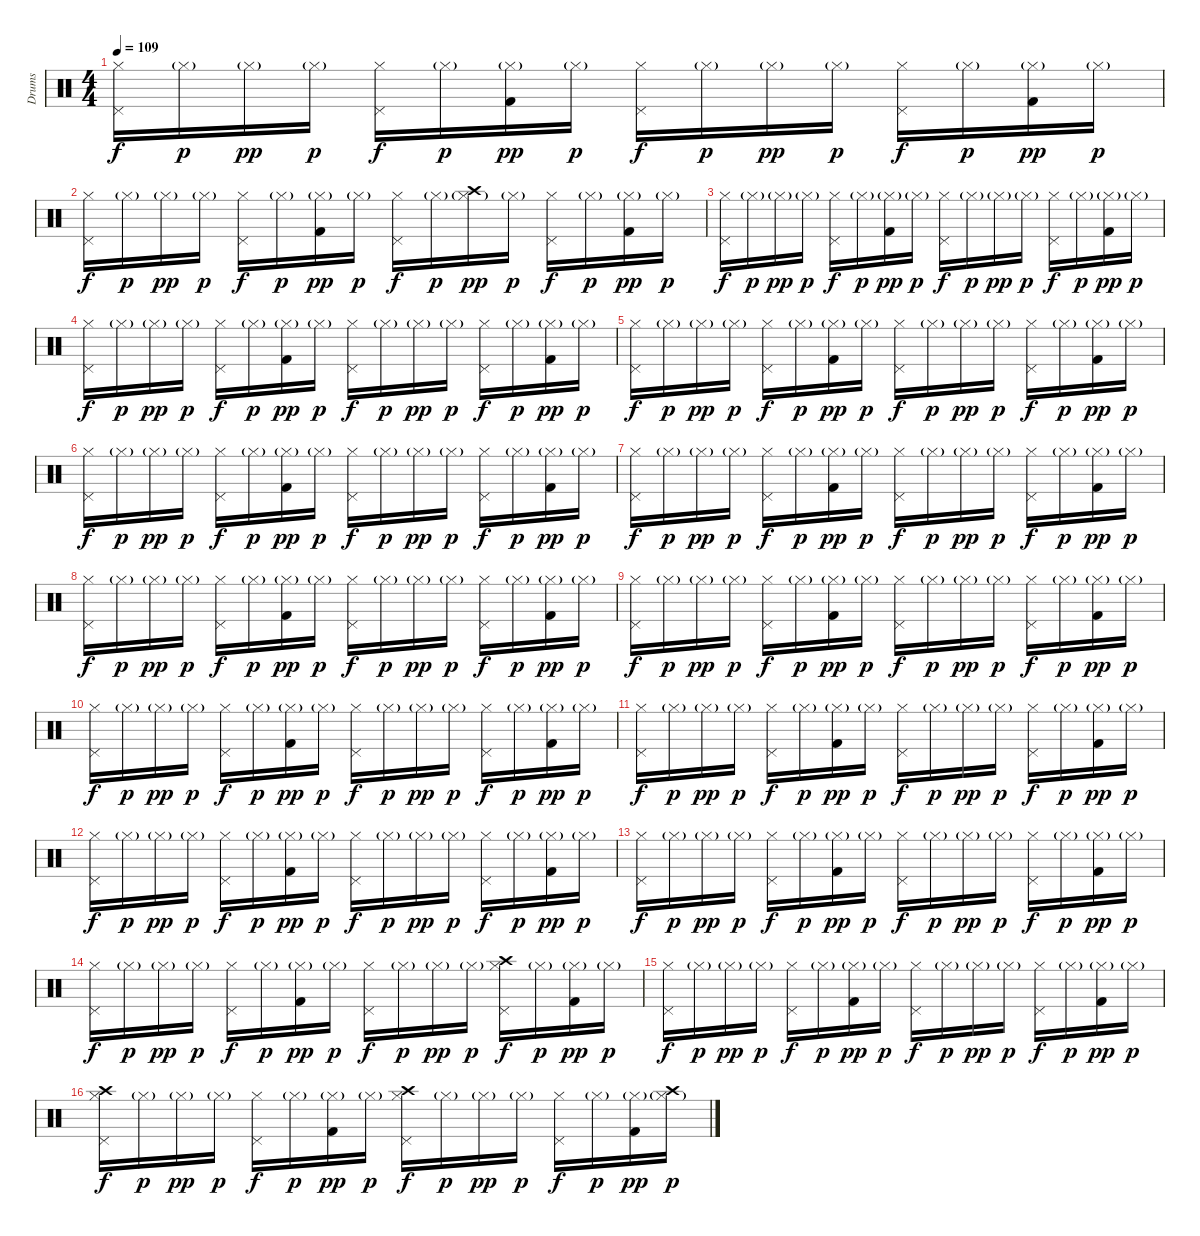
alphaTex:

\track ("Drums" "Drums") {instrument percussion}
\staff {score}
\articulation defaults
\ts (4 4)
\tempo 109
\clef neutral
\ks c
("Hi-Hat (closed)" "Pedal Hi-Hat (hit)").16{dy f} "Hi-Hat (closed)"{g}.16{dy p} "Hi-Hat (closed)"{g}.16{dy pp} "Hi-Hat (closed)"{g}.16{dy p} ("Hi-Hat (closed)" "Pedal Hi-Hat (hit)").16{dy f} "Hi-Hat (closed)"{g}.16{dy p} ("Hi-Hat (closed)"{g} "Kick (hit) 2").16{dy pp} "Hi-Hat (closed)"{g}.16{dy p} ("Hi-Hat (closed)" "Pedal Hi-Hat (hit)").16{dy f} "Hi-Hat (closed)"{g}.16{dy p} "Hi-Hat (closed)"{g}.16{dy pp} "Hi-Hat (closed)"{g}.16{dy p} ("Hi-Hat (closed)" "Pedal Hi-Hat (hit)").16{dy f} "Hi-Hat (closed)"{g}.16{dy p} ("Hi-Hat (closed)"{g} "Kick (hit) 2").16{dy pp} "Hi-Hat (closed)"{g}.16{dy p} |
("Hi-Hat (closed)" "Pedal Hi-Hat (hit)").16{dy f} "Hi-Hat (closed)"{g}.16{dy p} "Hi-Hat (closed)"{g}.16{dy pp} "Hi-Hat (closed)"{g}.16{dy p} ("Hi-Hat (closed)" "Pedal Hi-Hat (hit)").16{dy f} "Hi-Hat (closed)"{g}.16{dy p} ("Hi-Hat (closed)"{g} "Kick (hit) 2").16{dy pp} "Hi-Hat (closed)"{g}.16{dy p} ("Hi-Hat (closed)" "Pedal Hi-Hat (hit)").16{dy f} "Hi-Hat (closed)"{g}.16{dy p} ("Hi-Hat (closed)"{g} "Crash high (hit)").16{dy pp} "Hi-Hat (closed)"{g}.16{dy p} ("Hi-Hat (closed)" "Pedal Hi-Hat (hit)").16{dy f} "Hi-Hat (closed)"{g}.16{dy p} ("Hi-Hat (closed)"{g} "Kick (hit) 2").16{dy pp} "Hi-Hat (closed)"{g}.16{dy p} |
("Hi-Hat (closed)" "Pedal Hi-Hat (hit)").16{dy f} "Hi-Hat (closed)"{g}.16{dy p} "Hi-Hat (closed)"{g}.16{dy pp} "Hi-Hat (closed)"{g}.16{dy p} ("Hi-Hat (closed)" "Pedal Hi-Hat (hit)").16{dy f} "Hi-Hat (closed)"{g}.16{dy p} ("Hi-Hat (closed)"{g} "Kick (hit) 2").16{dy pp} "Hi-Hat (closed)"{g}.16{dy p} ("Hi-Hat (closed)" "Pedal Hi-Hat (hit)").16{dy f} "Hi-Hat (closed)"{g}.16{dy p} "Hi-Hat (closed)"{g}.16{dy pp} "Hi-Hat (closed)"{g}.16{dy p} ("Hi-Hat (closed)" "Pedal Hi-Hat (hit)").16{dy f} "Hi-Hat (closed)"{g}.16{dy p} ("Hi-Hat (closed)"{g} "Kick (hit) 2").16{dy pp} "Hi-Hat (closed)"{g}.16{dy p} |
("Hi-Hat (closed)" "Pedal Hi-Hat (hit)").16{dy f} "Hi-Hat (closed)"{g}.16{dy p} "Hi-Hat (closed)"{g}.16{dy pp} "Hi-Hat (closed)"{g}.16{dy p} ("Hi-Hat (closed)" "Pedal Hi-Hat (hit)").16{dy f} "Hi-Hat (closed)"{g}.16{dy p} ("Hi-Hat (closed)"{g} "Kick (hit) 2").16{dy pp} "Hi-Hat (closed)"{g}.16{dy p} ("Hi-Hat (closed)" "Pedal Hi-Hat (hit)").16{dy f} "Hi-Hat (closed)"{g}.16{dy p} "Hi-Hat (closed)"{g}.16{dy pp} "Hi-Hat (closed)"{g}.16{dy p} ("Hi-Hat (closed)" "Pedal Hi-Hat (hit)").16{dy f} "Hi-Hat (closed)"{g}.16{dy p} ("Hi-Hat (closed)"{g} "Kick (hit) 2").16{dy pp} "Hi-Hat (closed)"{g}.16{dy p} |
("Hi-Hat (closed)" "Pedal Hi-Hat (hit)").16{dy f} "Hi-Hat (closed)"{g}.16{dy p} "Hi-Hat (closed)"{g}.16{dy pp} "Hi-Hat (closed)"{g}.16{dy p} ("Hi-Hat (closed)" "Pedal Hi-Hat (hit)").16{dy f} "Hi-Hat (closed)"{g}.16{dy p} ("Hi-Hat (closed)"{g} "Kick (hit) 2").16{dy pp} "Hi-Hat (closed)"{g}.16{dy p} ("Hi-Hat (closed)" "Pedal Hi-Hat (hit)").16{dy f} "Hi-Hat (closed)"{g}.16{dy p} "Hi-Hat (closed)"{g}.16{dy pp} "Hi-Hat (closed)"{g}.16{dy p} ("Hi-Hat (closed)" "Pedal Hi-Hat (hit)").16{dy f} "Hi-Hat (closed)"{g}.16{dy p} ("Hi-Hat (closed)"{g} "Kick (hit) 2").16{dy pp} "Hi-Hat (closed)"{g}.16{dy p} |
("Hi-Hat (closed)" "Pedal Hi-Hat (hit)").16{dy f} "Hi-Hat (closed)"{g}.16{dy p} "Hi-Hat (closed)"{g}.16{dy pp} "Hi-Hat (closed)"{g}.16{dy p} ("Hi-Hat (closed)" "Pedal Hi-Hat (hit)").16{dy f} "Hi-Hat (closed)"{g}.16{dy p} ("Hi-Hat (closed)"{g} "Kick (hit) 2").16{dy pp} "Hi-Hat (closed)"{g}.16{dy p} ("Hi-Hat (closed)" "Pedal Hi-Hat (hit)").16{dy f} "Hi-Hat (closed)"{g}.16{dy p} "Hi-Hat (closed)"{g}.16{dy pp} "Hi-Hat (closed)"{g}.16{dy p} ("Hi-Hat (closed)" "Pedal Hi-Hat (hit)").16{dy f} "Hi-Hat (closed)"{g}.16{dy p} ("Hi-Hat (closed)"{g} "Kick (hit) 2").16{dy pp} "Hi-Hat (closed)"{g}.16{dy p} |
("Hi-Hat (closed)" "Pedal Hi-Hat (hit)").16{dy f} "Hi-Hat (closed)"{g}.16{dy p} "Hi-Hat (closed)"{g}.16{dy pp} "Hi-Hat (closed)"{g}.16{dy p} ("Hi-Hat (closed)" "Pedal Hi-Hat (hit)").16{dy f} "Hi-Hat (closed)"{g}.16{dy p} ("Hi-Hat (closed)"{g} "Kick (hit) 2").16{dy pp} "Hi-Hat (closed)"{g}.16{dy p} ("Hi-Hat (closed)" "Pedal Hi-Hat (hit)").16{dy f} "Hi-Hat (closed)"{g}.16{dy p} "Hi-Hat (closed)"{g}.16{dy pp} "Hi-Hat (closed)"{g}.16{dy p} ("Hi-Hat (closed)" "Pedal Hi-Hat (hit)").16{dy f} "Hi-Hat (closed)"{g}.16{dy p} ("Hi-Hat (closed)"{g} "Kick (hit) 2").16{dy pp} "Hi-Hat (closed)"{g}.16{dy p} |
("Hi-Hat (closed)" "Pedal Hi-Hat (hit)").16{dy f} "Hi-Hat (closed)"{g}.16{dy p} "Hi-Hat (closed)"{g}.16{dy pp} "Hi-Hat (closed)"{g}.16{dy p} ("Hi-Hat (closed)" "Pedal Hi-Hat (hit)").16{dy f} "Hi-Hat (closed)"{g}.16{dy p} ("Hi-Hat (closed)"{g} "Kick (hit) 2").16{dy pp} "Hi-Hat (closed)"{g}.16{dy p} ("Hi-Hat (closed)" "Pedal Hi-Hat (hit)").16{dy f} "Hi-Hat (closed)"{g}.16{dy p} "Hi-Hat (closed)"{g}.16{dy pp} "Hi-Hat (closed)"{g}.16{dy p} ("Hi-Hat (closed)" "Pedal Hi-Hat (hit)").16{dy f} "Hi-Hat (closed)"{g}.16{dy p} ("Hi-Hat (closed)"{g} "Kick (hit) 2").16{dy pp} "Hi-Hat (closed)"{g}.16{dy p} |
("Hi-Hat (closed)" "Pedal Hi-Hat (hit)").16{dy f} "Hi-Hat (closed)"{g}.16{dy p} "Hi-Hat (closed)"{g}.16{dy pp} "Hi-Hat (closed)"{g}.16{dy p} ("Hi-Hat (closed)" "Pedal Hi-Hat (hit)").16{dy f} "Hi-Hat (closed)"{g}.16{dy p} ("Hi-Hat (closed)"{g} "Kick (hit) 2").16{dy pp} "Hi-Hat (closed)"{g}.16{dy p} ("Hi-Hat (closed)" "Pedal Hi-Hat (hit)").16{dy f} "Hi-Hat (closed)"{g}.16{dy p} "Hi-Hat (closed)"{g}.16{dy pp} "Hi-Hat (closed)"{g}.16{dy p} ("Hi-Hat (closed)" "Pedal Hi-Hat (hit)").16{dy f} "Hi-Hat (closed)"{g}.16{dy p} ("Hi-Hat (closed)"{g} "Kick (hit) 2").16{dy pp} "Hi-Hat (closed)"{g}.16{dy p} |
("Hi-Hat (closed)" "Pedal Hi-Hat (hit)").16{dy f} "Hi-Hat (closed)"{g}.16{dy p} "Hi-Hat (closed)"{g}.16{dy pp} "Hi-Hat (closed)"{g}.16{dy p} ("Hi-Hat (closed)" "Pedal Hi-Hat (hit)").16{dy f} "Hi-Hat (closed)"{g}.16{dy p} ("Hi-Hat (closed)"{g} "Kick (hit) 2").16{dy pp} "Hi-Hat (closed)"{g}.16{dy p} ("Hi-Hat (closed)" "Pedal Hi-Hat (hit)").16{dy f} "Hi-Hat (closed)"{g}.16{dy p} "Hi-Hat (closed)"{g}.16{dy pp} "Hi-Hat (closed)"{g}.16{dy p} ("Hi-Hat (closed)" "Pedal Hi-Hat (hit)").16{dy f} "Hi-Hat (closed)"{g}.16{dy p} ("Hi-Hat (closed)"{g} "Kick (hit) 2").16{dy pp} "Hi-Hat (closed)"{g}.16{dy p} |
("Hi-Hat (closed)" "Pedal Hi-Hat (hit)").16{dy f} "Hi-Hat (closed)"{g}.16{dy p} "Hi-Hat (closed)"{g}.16{dy pp} "Hi-Hat (closed)"{g}.16{dy p} ("Hi-Hat (closed)" "Pedal Hi-Hat (hit)").16{dy f} "Hi-Hat (closed)"{g}.16{dy p} ("Hi-Hat (closed)"{g} "Kick (hit) 2").16{dy pp} "Hi-Hat (closed)"{g}.16{dy p} ("Hi-Hat (closed)" "Pedal Hi-Hat (hit)").16{dy f} "Hi-Hat (closed)"{g}.16{dy p} "Hi-Hat (closed)"{g}.16{dy pp} "Hi-Hat (closed)"{g}.16{dy p} ("Hi-Hat (closed)" "Pedal Hi-Hat (hit)").16{dy f} "Hi-Hat (closed)"{g}.16{dy p} ("Hi-Hat (closed)"{g} "Kick (hit) 2").16{dy pp} "Hi-Hat (closed)"{g}.16{dy p} |
("Hi-Hat (closed)" "Pedal Hi-Hat (hit)").16{dy f} "Hi-Hat (closed)"{g}.16{dy p} "Hi-Hat (closed)"{g}.16{dy pp} "Hi-Hat (closed)"{g}.16{dy p} ("Hi-Hat (closed)" "Pedal Hi-Hat (hit)").16{dy f} "Hi-Hat (closed)"{g}.16{dy p} ("Hi-Hat (closed)"{g} "Kick (hit) 2").16{dy pp} "Hi-Hat (closed)"{g}.16{dy p} ("Hi-Hat (closed)" "Pedal Hi-Hat (hit)").16{dy f} "Hi-Hat (closed)"{g}.16{dy p} "Hi-Hat (closed)"{g}.16{dy pp} "Hi-Hat (closed)"{g}.16{dy p} ("Hi-Hat (closed)" "Pedal Hi-Hat (hit)").16{dy f} "Hi-Hat (closed)"{g}.16{dy p} ("Hi-Hat (closed)"{g} "Kick (hit) 2").16{dy pp} "Hi-Hat (closed)"{g}.16{dy p} |
("Hi-Hat (closed)" "Pedal Hi-Hat (hit)").16{dy f} "Hi-Hat (closed)"{g}.16{dy p} "Hi-Hat (closed)"{g}.16{dy pp} "Hi-Hat (closed)"{g}.16{dy p} ("Hi-Hat (closed)" "Pedal Hi-Hat (hit)").16{dy f} "Hi-Hat (closed)"{g}.16{dy p} ("Hi-Hat (closed)"{g} "Kick (hit) 2").16{dy pp} "Hi-Hat (closed)"{g}.16{dy p} ("Hi-Hat (closed)" "Pedal Hi-Hat (hit)").16{dy f} "Hi-Hat (closed)"{g}.16{dy p} "Hi-Hat (closed)"{g}.16{dy pp} "Hi-Hat (closed)"{g}.16{dy p} ("Hi-Hat (closed)" "Pedal Hi-Hat (hit)").16{dy f} "Hi-Hat (closed)"{g}.16{dy p} ("Hi-Hat (closed)"{g} "Kick (hit) 2").16{dy pp} "Hi-Hat (closed)"{g}.16{dy p} |
("Hi-Hat (closed)" "Pedal Hi-Hat (hit)").16{dy f} "Hi-Hat (closed)"{g}.16{dy p} "Hi-Hat (closed)"{g}.16{dy pp} "Hi-Hat (closed)"{g}.16{dy p} ("Hi-Hat (closed)" "Pedal Hi-Hat (hit)").16{dy f} "Hi-Hat (closed)"{g}.16{dy p} ("Hi-Hat (closed)"{g} "Kick (hit) 2").16{dy pp} "Hi-Hat (closed)"{g}.16{dy p} ("Hi-Hat (closed)" "Pedal Hi-Hat (hit)").16{dy f} "Hi-Hat (closed)"{g}.16{dy p} "Hi-Hat (closed)"{g}.16{dy pp} "Hi-Hat (closed)"{g}.16{dy p} ("Hi-Hat (closed)" "Pedal Hi-Hat (hit)" "Crash high (hit)").16{dy f} "Hi-Hat (closed)"{g}.16{dy p} ("Hi-Hat (closed)"{g} "Kick (hit) 2").16{dy pp} "Hi-Hat (closed)"{g}.16{dy p} |
("Hi-Hat (closed)" "Pedal Hi-Hat (hit)").16{dy f} "Hi-Hat (closed)"{g}.16{dy p} "Hi-Hat (closed)"{g}.16{dy pp} "Hi-Hat (closed)"{g}.16{dy p} ("Hi-Hat (closed)" "Pedal Hi-Hat (hit)").16{dy f} "Hi-Hat (closed)"{g}.16{dy p} ("Hi-Hat (closed)"{g} "Kick (hit) 2").16{dy pp} "Hi-Hat (closed)"{g}.16{dy p} ("Hi-Hat (closed)" "Pedal Hi-Hat (hit)").16{dy f} "Hi-Hat (closed)"{g}.16{dy p} "Hi-Hat (closed)"{g}.16{dy pp} "Hi-Hat (closed)"{g}.16{dy p} ("Hi-Hat (closed)" "Pedal Hi-Hat (hit)").16{dy f} "Hi-Hat (closed)"{g}.16{dy p} ("Hi-Hat (closed)"{g} "Kick (hit) 2").16{dy pp} "Hi-Hat (closed)"{g}.16{dy p} |
("Hi-Hat (closed)" "Pedal Hi-Hat (hit)" "Crash high (hit)").16{dy f} "Hi-Hat (closed)"{g}.16{dy p} "Hi-Hat (closed)"{g}.16{dy pp} "Hi-Hat (closed)"{g}.16{dy p} ("Hi-Hat (closed)" "Pedal Hi-Hat (hit)").16{dy f} "Hi-Hat (closed)"{g}.16{dy p} ("Hi-Hat (closed)"{g} "Kick (hit) 2").16{dy pp} "Hi-Hat (closed)"{g}.16{dy p} ("Hi-Hat (closed)" "Pedal Hi-Hat (hit)" "Crash high (hit)").16{dy f} "Hi-Hat (closed)"{g}.16{dy p} "Hi-Hat (closed)"{g}.16{dy pp} "Hi-Hat (closed)"{g}.16{dy p} ("Hi-Hat (closed)" "Pedal Hi-Hat (hit)").16{dy f} "Hi-Hat (closed)"{g}.16{dy p} ("Hi-Hat (closed)"{g} "Kick (hit) 2").16{dy pp} ("Hi-Hat (closed)"{g} "Crash high (hit)").16{dy p}
